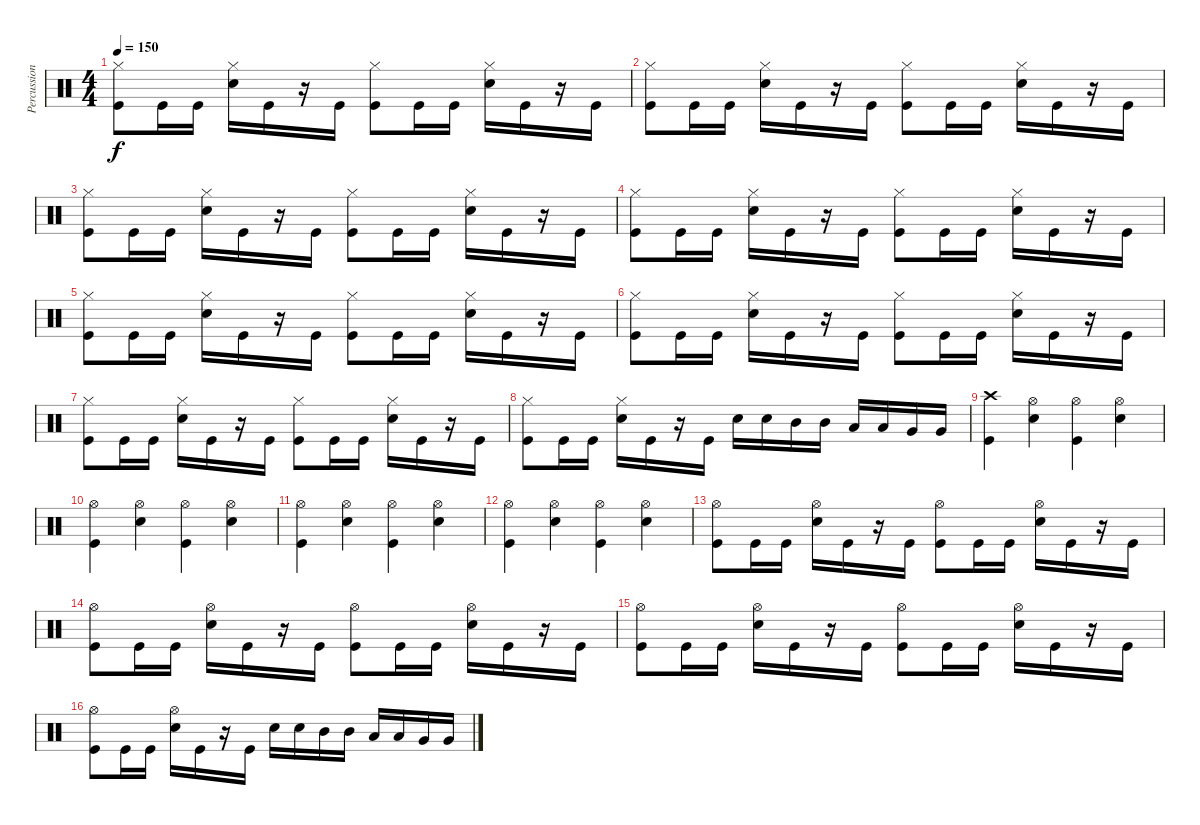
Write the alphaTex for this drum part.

\track ("Percussions" "Percussion") {instrument percussion}
\staff {score}
\articulation defaults
\ts (4 4)
\tempo 150
\clef neutral
\ks c
("Hi-Hat (closed)" "Kick (hit)").8{dy f} "Kick (hit)".16 "Kick (hit)".16 ("Hi-Hat (closed)" "Electric Snare (hit)").16 "Kick (hit)".16 r.16 "Kick (hit)".16 ("Hi-Hat (closed)" "Kick (hit)").8 "Kick (hit)".16 "Kick (hit)".16 ("Hi-Hat (closed)" "Electric Snare (hit)").16 "Kick (hit)".16 r.16 "Kick (hit)".16 |
("Hi-Hat (closed)" "Kick (hit)").8 "Kick (hit)".16 "Kick (hit)".16 ("Hi-Hat (closed)" "Electric Snare (hit)").16 "Kick (hit)".16 r.16 "Kick (hit)".16 ("Hi-Hat (closed)" "Kick (hit)").8 "Kick (hit)".16 "Kick (hit)".16 ("Hi-Hat (closed)" "Electric Snare (hit)").16 "Kick (hit)".16 r.16 "Kick (hit)".16 |
("Hi-Hat (closed)" "Kick (hit)").8 "Kick (hit)".16 "Kick (hit)".16 ("Hi-Hat (closed)" "Electric Snare (hit)").16 "Kick (hit)".16 r.16 "Kick (hit)".16 ("Hi-Hat (closed)" "Kick (hit)").8 "Kick (hit)".16 "Kick (hit)".16 ("Hi-Hat (closed)" "Electric Snare (hit)").16 "Kick (hit)".16 r.16 "Kick (hit)".16 |
("Hi-Hat (closed)" "Kick (hit)").8 "Kick (hit)".16 "Kick (hit)".16 ("Hi-Hat (closed)" "Electric Snare (hit)").16 "Kick (hit)".16 r.16 "Kick (hit)".16 ("Hi-Hat (closed)" "Kick (hit)").8 "Kick (hit)".16 "Kick (hit)".16 ("Hi-Hat (closed)" "Electric Snare (hit)").16 "Kick (hit)".16 r.16 "Kick (hit)".16 |
("Hi-Hat (closed)" "Kick (hit)").8 "Kick (hit)".16 "Kick (hit)".16 ("Hi-Hat (closed)" "Electric Snare (hit)").16 "Kick (hit)".16 r.16 "Kick (hit)".16 ("Hi-Hat (closed)" "Kick (hit)").8 "Kick (hit)".16 "Kick (hit)".16 ("Hi-Hat (closed)" "Electric Snare (hit)").16 "Kick (hit)".16 r.16 "Kick (hit)".16 |
("Hi-Hat (closed)" "Kick (hit)").8 "Kick (hit)".16 "Kick (hit)".16 ("Hi-Hat (closed)" "Electric Snare (hit)").16 "Kick (hit)".16 r.16 "Kick (hit)".16 ("Hi-Hat (closed)" "Kick (hit)").8 "Kick (hit)".16 "Kick (hit)".16 ("Hi-Hat (closed)" "Electric Snare (hit)").16 "Kick (hit)".16 r.16 "Kick (hit)".16 |
("Hi-Hat (closed)" "Kick (hit)").8 "Kick (hit)".16 "Kick (hit)".16 ("Hi-Hat (closed)" "Electric Snare (hit)").16 "Kick (hit)".16 r.16 "Kick (hit)".16 ("Hi-Hat (closed)" "Kick (hit)").8 "Kick (hit)".16 "Kick (hit)".16 ("Hi-Hat (closed)" "Electric Snare (hit)").16 "Kick (hit)".16 r.16 "Kick (hit)".16 |
("Hi-Hat (closed)" "Kick (hit)").8 "Kick (hit)".16 "Kick (hit)".16 ("Hi-Hat (closed)" "Electric Snare (hit)").16 "Kick (hit)".16 r.16 "Kick (hit)".16 "Electric Snare (hit)".16 "Electric Snare (hit)".16 "Mid Tom (hit)".16 "Mid Tom (hit)".16 "Low Tom (hit)".16 "Low Tom (hit)".16 "Very Low Tom (hit)".16 "Very Low Tom (hit)".16 |
("Crash high (hit)" "Kick (hit)").4 ("Hi-Hat (open)" "Electric Snare (hit)").4 ("Hi-Hat (open)" "Kick (hit)").4 ("Hi-Hat (open)" "Electric Snare (hit)").4 |
("Hi-Hat (open)" "Kick (hit)").4 ("Hi-Hat (open)" "Electric Snare (hit)").4 ("Hi-Hat (open)" "Kick (hit)").4 ("Hi-Hat (open)" "Electric Snare (hit)").4 |
("Hi-Hat (open)" "Kick (hit)").4 ("Hi-Hat (open)" "Electric Snare (hit)").4 ("Hi-Hat (open)" "Kick (hit)").4 ("Hi-Hat (open)" "Electric Snare (hit)").4 |
("Hi-Hat (open)" "Kick (hit)").4 ("Hi-Hat (open)" "Electric Snare (hit)").4 ("Hi-Hat (open)" "Kick (hit)").4 ("Hi-Hat (open)" "Electric Snare (hit)").4 |
("Hi-Hat (open)" "Kick (hit)").8 "Kick (hit)".16 "Kick (hit)".16 ("Hi-Hat (open)" "Electric Snare (hit)").16 "Kick (hit)".16 r.16 "Kick (hit)".16 ("Hi-Hat (open)" "Kick (hit)").8 "Kick (hit)".16 "Kick (hit)".16 ("Hi-Hat (open)" "Electric Snare (hit)").16 "Kick (hit)".16 r.16 "Kick (hit)".16 |
("Hi-Hat (open)" "Kick (hit)").8 "Kick (hit)".16 "Kick (hit)".16 ("Hi-Hat (open)" "Electric Snare (hit)").16 "Kick (hit)".16 r.16 "Kick (hit)".16 ("Hi-Hat (open)" "Kick (hit)").8 "Kick (hit)".16 "Kick (hit)".16 ("Hi-Hat (open)" "Electric Snare (hit)").16 "Kick (hit)".16 r.16 "Kick (hit)".16 |
("Hi-Hat (open)" "Kick (hit)").8 "Kick (hit)".16 "Kick (hit)".16 ("Hi-Hat (open)" "Electric Snare (hit)").16 "Kick (hit)".16 r.16 "Kick (hit)".16 ("Hi-Hat (open)" "Kick (hit)").8 "Kick (hit)".16 "Kick (hit)".16 ("Hi-Hat (open)" "Electric Snare (hit)").16 "Kick (hit)".16 r.16 "Kick (hit)".16 |
("Hi-Hat (open)" "Kick (hit)").8 "Kick (hit)".16 "Kick (hit)".16 ("Hi-Hat (open)" "Electric Snare (hit)").16 "Kick (hit)".16 r.16 "Kick (hit)".16 "Electric Snare (hit)".16 "Electric Snare (hit)".16 "Mid Tom (hit)".16 "Mid Tom (hit)".16 "Low Tom (hit)".16 "Low Tom (hit)".16 "Very Low Tom (hit)".16 "Very Low Tom (hit)".16
